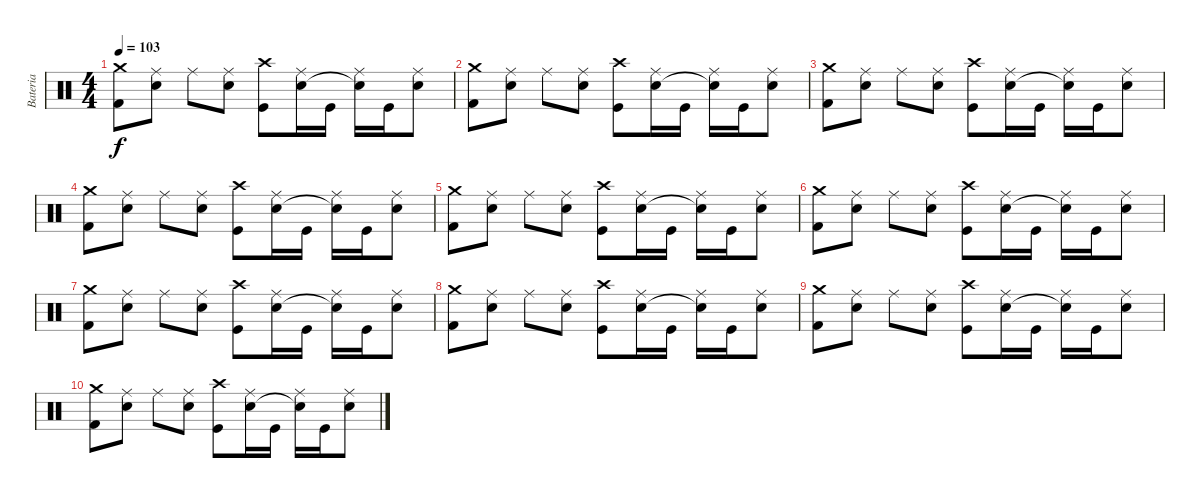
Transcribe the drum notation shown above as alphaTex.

\track ("Bateria" "Bateria") {instrument percussion}
\staff {score}
\articulation defaults
\ts (4 4)
\tempo 103
\clef neutral
\ks c
("Crash medium (hit)" "Kick (hit) 2").8{dy f} ("Ride (middle)" "Snare (hit) 2").8 "Ride (middle)".8 ("Ride (middle)" "Snare (hit) 2").8 ("Crash high (hit)" "Kick (hit)").8 ("Ride (middle)" "Snare (hit) 2").16 "Kick (hit)".16 ("Ride (middle)" "Snare (hit)"{t}).16 "Kick (hit)".16 ("Ride (middle)" "Snare (hit) 2").8 |
("Crash medium (hit)" "Kick (hit) 2").8 ("Ride (middle)" "Snare (hit) 2").8 "Ride (middle)".8 ("Ride (middle)" "Snare (hit) 2").8 ("Crash high (hit)" "Kick (hit)").8 ("Ride (middle)" "Snare (hit) 2").16 "Kick (hit)".16 ("Ride (middle)" "Snare (hit)"{t}).16 "Kick (hit)".16 ("Ride (middle)" "Snare (hit) 2").8 |
("Crash medium (hit)" "Kick (hit) 2").8 ("Ride (middle)" "Snare (hit) 2").8 "Ride (middle)".8 ("Ride (middle)" "Snare (hit) 2").8 ("Crash high (hit)" "Kick (hit)").8 ("Ride (middle)" "Snare (hit) 2").16 "Kick (hit)".16 ("Ride (middle)" "Snare (hit)"{t}).16 "Kick (hit)".16 ("Ride (middle)" "Snare (hit) 2").8 |
("Crash medium (hit)" "Kick (hit) 2").8 ("Ride (middle)" "Snare (hit) 2").8 "Ride (middle)".8 ("Ride (middle)" "Snare (hit) 2").8 ("Crash high (hit)" "Kick (hit)").8 ("Ride (middle)" "Snare (hit) 2").16 "Kick (hit)".16 ("Ride (middle)" "Snare (hit)"{t}).16 "Kick (hit)".16 ("Ride (middle)" "Snare (hit) 2").8 |
("Crash medium (hit)" "Kick (hit) 2").8 ("Ride (middle)" "Snare (hit) 2").8 "Ride (middle)".8 ("Ride (middle)" "Snare (hit) 2").8 ("Crash high (hit)" "Kick (hit)").8 ("Ride (middle)" "Snare (hit) 2").16 "Kick (hit)".16 ("Ride (middle)" "Snare (hit)"{t}).16 "Kick (hit)".16 ("Ride (middle)" "Snare (hit) 2").8 |
("Crash medium (hit)" "Kick (hit) 2").8 ("Ride (middle)" "Snare (hit) 2").8 "Ride (middle)".8 ("Ride (middle)" "Snare (hit) 2").8 ("Crash high (hit)" "Kick (hit)").8 ("Ride (middle)" "Snare (hit) 2").16 "Kick (hit)".16 ("Ride (middle)" "Snare (hit)"{t}).16 "Kick (hit)".16 ("Ride (middle)" "Snare (hit) 2").8 |
("Crash medium (hit)" "Kick (hit) 2").8 ("Ride (middle)" "Snare (hit) 2").8 "Ride (middle)".8 ("Ride (middle)" "Snare (hit) 2").8 ("Crash high (hit)" "Kick (hit)").8 ("Ride (middle)" "Snare (hit) 2").16 "Kick (hit)".16 ("Ride (middle)" "Snare (hit)"{t}).16 "Kick (hit)".16 ("Ride (middle)" "Snare (hit) 2").8 |
("Crash medium (hit)" "Kick (hit) 2").8 ("Ride (middle)" "Snare (hit) 2").8 "Ride (middle)".8 ("Ride (middle)" "Snare (hit) 2").8 ("Crash high (hit)" "Kick (hit)").8 ("Ride (middle)" "Snare (hit) 2").16 "Kick (hit)".16 ("Ride (middle)" "Snare (hit)"{t}).16 "Kick (hit)".16 ("Ride (middle)" "Snare (hit) 2").8 |
("Crash medium (hit)" "Kick (hit) 2").8 ("Ride (middle)" "Snare (hit) 2").8 "Ride (middle)".8 ("Ride (middle)" "Snare (hit) 2").8 ("Crash high (hit)" "Kick (hit)").8 ("Ride (middle)" "Snare (hit) 2").16 "Kick (hit)".16 ("Ride (middle)" "Snare (hit)"{t}).16 "Kick (hit)".16 ("Ride (middle)" "Snare (hit) 2").8 |
("Crash medium (hit)" "Kick (hit) 2").8 ("Ride (middle)" "Snare (hit) 2").8 "Ride (middle)".8 ("Ride (middle)" "Snare (hit) 2").8 ("Crash high (hit)" "Kick (hit)").8 ("Ride (middle)" "Snare (hit) 2").16 "Kick (hit)".16 ("Ride (middle)" "Snare (hit)"{t}).16 "Kick (hit)".16 ("Ride (middle)" "Snare (hit) 2").8
